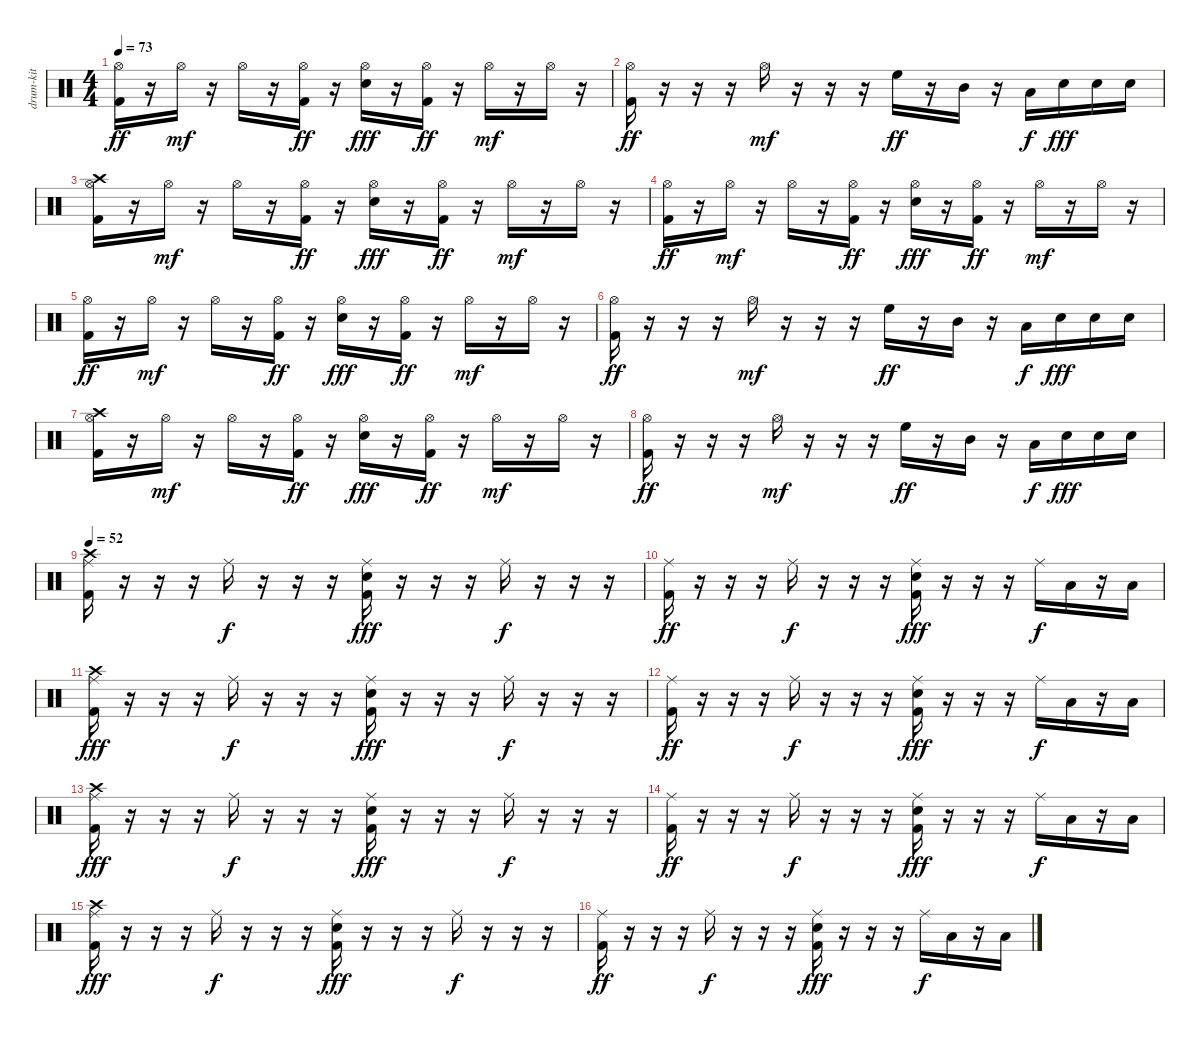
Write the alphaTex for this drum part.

\track ("drum-kit" "drum-kit") {instrument percussion}
\staff {score}
\articulation defaults
\ts (4 4)
\tempo 73
\clef neutral
\ks c
("Hi-Hat (open)" "Kick (hit) 2").16{dy ff} r.16 "Hi-Hat (open)".16{dy mf} r.16 "Hi-Hat (open)".16 r.16 ("Hi-Hat (open)" "Kick (hit) 2").16{dy ff} r.16 ("Hi-Hat (open)" "Snare (hit) 2").16{dy fff} r.16 ("Hi-Hat (open)" "Kick (hit) 2").16{dy ff} r.16 "Hi-Hat (open)".16{dy mf} r.16 "Hi-Hat (open)".16 r.16 |
("Hi-Hat (open)" "Kick (hit) 2").16{dy ff} r.16 r.16 r.16 "Hi-Hat (open)".16{dy mf} r.16 r.16 r.16 "High Floor Tom (hit)".16{dy ff} r.16 "Mid Tom (hit)".16 r.16 "Low Tom (hit)".16{dy f} "Snare (hit) 2".16{dy fff} "Snare (hit) 2".16 "Snare (hit) 2".16 |
("Crash high (hit)" "Hi-Hat (open)" "Kick (hit) 2").16 r.16 "Hi-Hat (open)".16{dy mf} r.16 "Hi-Hat (open)".16 r.16 ("Hi-Hat (open)" "Kick (hit) 2").16{dy ff} r.16 ("Hi-Hat (open)" "Snare (hit) 2").16{dy fff} r.16 ("Hi-Hat (open)" "Kick (hit) 2").16{dy ff} r.16 "Hi-Hat (open)".16{dy mf} r.16 "Hi-Hat (open)".16 r.16 |
("Hi-Hat (open)" "Kick (hit) 2").16{dy ff} r.16 "Hi-Hat (open)".16{dy mf} r.16 "Hi-Hat (open)".16 r.16 ("Hi-Hat (open)" "Kick (hit) 2").16{dy ff} r.16 ("Hi-Hat (open)" "Snare (hit) 2").16{dy fff} r.16 ("Hi-Hat (open)" "Kick (hit) 2").16{dy ff} r.16 "Hi-Hat (open)".16{dy mf} r.16 "Hi-Hat (open)".16 r.16 |
("Hi-Hat (open)" "Kick (hit) 2").16{dy ff} r.16 "Hi-Hat (open)".16{dy mf} r.16 "Hi-Hat (open)".16 r.16 ("Hi-Hat (open)" "Kick (hit) 2").16{dy ff} r.16 ("Hi-Hat (open)" "Snare (hit) 2").16{dy fff} r.16 ("Hi-Hat (open)" "Kick (hit) 2").16{dy ff} r.16 "Hi-Hat (open)".16{dy mf} r.16 "Hi-Hat (open)".16 r.16 |
("Hi-Hat (open)" "Kick (hit) 2").16{dy ff} r.16 r.16 r.16 "Hi-Hat (open)".16{dy mf} r.16 r.16 r.16 "High Floor Tom (hit)".16{dy ff} r.16 "Mid Tom (hit)".16 r.16 "Low Tom (hit)".16{dy f} "Snare (hit) 2".16{dy fff} "Snare (hit) 2".16 "Snare (hit) 2".16 |
("Crash high (hit)" "Hi-Hat (open)" "Kick (hit) 2").16 r.16 "Hi-Hat (open)".16{dy mf} r.16 "Hi-Hat (open)".16 r.16 ("Hi-Hat (open)" "Kick (hit) 2").16{dy ff} r.16 ("Hi-Hat (open)" "Snare (hit) 2").16{dy fff} r.16 ("Hi-Hat (open)" "Kick (hit) 2").16{dy ff} r.16 "Hi-Hat (open)".16{dy mf} r.16 "Hi-Hat (open)".16 r.16 |
("Hi-Hat (open)" "Kick (hit) 2").16{dy ff} r.16 r.16 r.16 "Hi-Hat (open)".16{dy mf} r.16 r.16 r.16 "High Floor Tom (hit)".16{dy ff} r.16 "Mid Tom (hit)".16 r.16 "Low Tom (hit)".16{dy f} "Snare (hit) 2".16{dy fff} "Snare (hit) 2".16 "Snare (hit) 2".16 |
\tempo 52
("Ride (middle)" "Crash high (hit)" "Kick (hit) 2").16 r.16 r.16 r.16 "Ride (middle)".16{dy f} r.16 r.16 r.16 ("Ride (middle)" "Snare (hit) 2" "Kick (hit) 2").16{dy fff} r.16 r.16 r.16 "Ride (middle)".16{dy f} r.16 r.16 r.16 |
("Ride (middle)" "Kick (hit) 2").16{dy ff} r.16 r.16 r.16 "Ride (middle)".16{dy f} r.16 r.16 r.16 ("Ride (middle)" "Snare (hit) 2" "Kick (hit) 2").16{dy fff} r.16 r.16 r.16 "Ride (middle)".16{dy f} "Low Tom (hit)".16 r.16 "Low Tom (hit)".16 |
("Ride (middle)" "Crash high (hit)" "Kick (hit) 2").16{dy fff} r.16 r.16 r.16 "Ride (middle)".16{dy f} r.16 r.16 r.16 ("Ride (middle)" "Snare (hit) 2" "Kick (hit) 2").16{dy fff} r.16 r.16 r.16 "Ride (middle)".16{dy f} r.16 r.16 r.16 |
("Ride (middle)" "Kick (hit) 2").16{dy ff} r.16 r.16 r.16 "Ride (middle)".16{dy f} r.16 r.16 r.16 ("Ride (middle)" "Snare (hit) 2" "Kick (hit) 2").16{dy fff} r.16 r.16 r.16 "Ride (middle)".16{dy f} "Low Tom (hit)".16 r.16 "Low Tom (hit)".16 |
("Ride (middle)" "Crash high (hit)" "Kick (hit) 2").16{dy fff} r.16 r.16 r.16 "Ride (middle)".16{dy f} r.16 r.16 r.16 ("Ride (middle)" "Snare (hit) 2" "Kick (hit) 2").16{dy fff} r.16 r.16 r.16 "Ride (middle)".16{dy f} r.16 r.16 r.16 |
("Ride (middle)" "Kick (hit) 2").16{dy ff} r.16 r.16 r.16 "Ride (middle)".16{dy f} r.16 r.16 r.16 ("Ride (middle)" "Snare (hit) 2" "Kick (hit) 2").16{dy fff} r.16 r.16 r.16 "Ride (middle)".16{dy f} "Low Tom (hit)".16 r.16 "Low Tom (hit)".16 |
("Ride (middle)" "Crash high (hit)" "Kick (hit) 2").16{dy fff} r.16 r.16 r.16 "Ride (middle)".16{dy f} r.16 r.16 r.16 ("Ride (middle)" "Snare (hit) 2" "Kick (hit) 2").16{dy fff} r.16 r.16 r.16 "Ride (middle)".16{dy f} r.16 r.16 r.16 |
("Ride (middle)" "Kick (hit) 2").16{dy ff} r.16 r.16 r.16 "Ride (middle)".16{dy f} r.16 r.16 r.16 ("Ride (middle)" "Snare (hit) 2" "Kick (hit) 2").16{dy fff} r.16 r.16 r.16 "Ride (middle)".16{dy f} "Low Tom (hit)".16 r.16 "Low Tom (hit)".16
